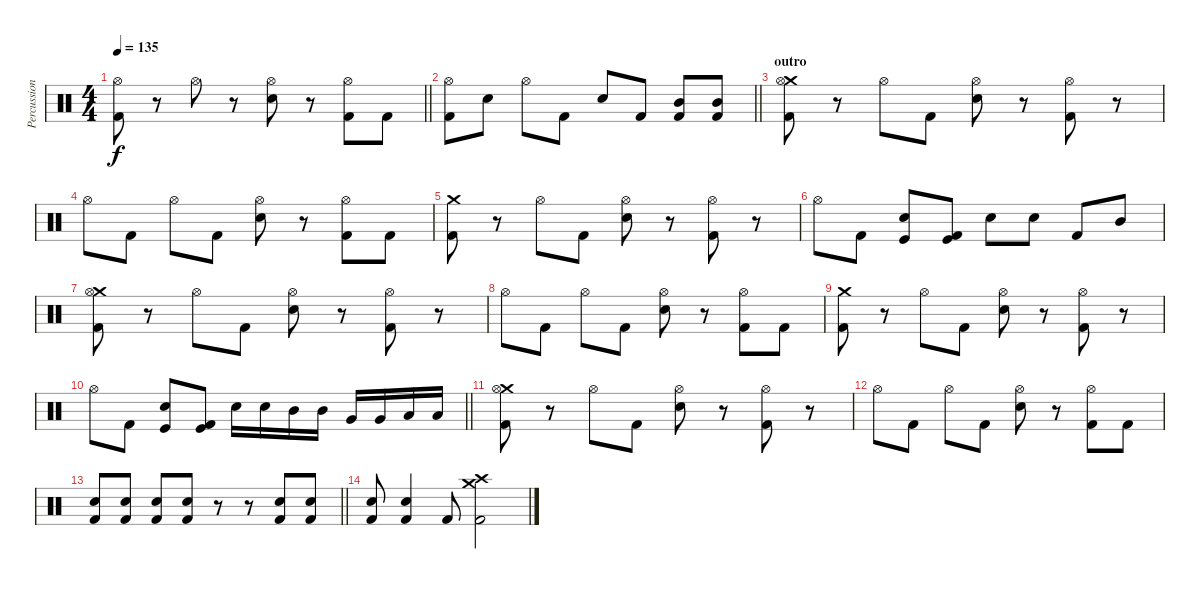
\track ("Percussion" "Percussion") {instrument percussion}
\staff {score}
\articulation defaults
\ts (4 4)
\tempo 135
\clef neutral
\barLineRight lightlight
\ks c
("Hi-Hat (open)" "Kick (hit) 2").8{dy f} r.8 "Hi-Hat (open)".8 r.8 ("Hi-Hat (open)" "Electric Snare (hit)").8 r.8 ("Hi-Hat (open)" "Kick (hit) 2").8 "Kick (hit) 2".8 |
\barLineRight lightlight
("Hi-Hat (open)" "Kick (hit) 2").8 "Electric Snare (hit)".8 "Hi-Hat (open)".8 "Kick (hit) 2".8 "Electric Snare (hit)".8 "Kick (hit) 2".8 ("Mid Tom (hit)" "Kick (hit) 2").8 ("Mid Tom (hit)" "Kick (hit) 2").8 |
\section ("" "outro")
("Crash medium (hit)" "Hi-Hat (open)" "Kick (hit) 2").8 r.8 "Hi-Hat (open)".8 "Kick (hit) 2".8 ("Hi-Hat (open)" "Electric Snare (hit)").8 r.8 ("Hi-Hat (open)" "Kick (hit) 2").8 r.8 |
"Hi-Hat (open)".8 "Kick (hit) 2".8 "Hi-Hat (open)".8 "Kick (hit) 2".8 ("Hi-Hat (open)" "Electric Snare (hit)").8 r.8 ("Hi-Hat (open)" "Kick (hit) 2").8 "Kick (hit) 2".8 |
("Crash medium (hit)" "Kick (hit) 2").8 r.8 "Hi-Hat (open)".8 "Kick (hit) 2".8 ("Hi-Hat (open)" "Electric Snare (hit)").8 r.8 ("Hi-Hat (open)" "Kick (hit) 2").8 r.8 |
"Hi-Hat (open)".8 "Kick (hit) 2".8 ("Kick (hit)" "Electric Snare (hit)").8 ("Kick (hit)" "Kick (hit) 2").8 "Electric Snare (hit)".8 "Electric Snare (hit)".8 "Kick (hit) 2".8 "Mid Tom (hit)".8 |
("Crash medium (hit)" "Hi-Hat (open)" "Kick (hit) 2").8 r.8 "Hi-Hat (open)".8 "Kick (hit) 2".8 ("Hi-Hat (open)" "Electric Snare (hit)").8 r.8 ("Hi-Hat (open)" "Kick (hit) 2").8 r.8 |
"Hi-Hat (open)".8 "Kick (hit) 2".8 "Hi-Hat (open)".8 "Kick (hit) 2".8 ("Hi-Hat (open)" "Electric Snare (hit)").8 r.8 ("Hi-Hat (open)" "Kick (hit) 2").8 "Kick (hit) 2".8 |
("Crash medium (hit)" "Kick (hit) 2").8 r.8 "Hi-Hat (open)".8 "Kick (hit) 2".8 ("Hi-Hat (open)" "Electric Snare (hit)").8 r.8 ("Hi-Hat (open)" "Kick (hit) 2").8 r.8 |
\barLineRight lightlight "Hi-Hat (open)".8 "Kick (hit) 2".8
("Kick (hit)" "Electric Snare (hit)").8 ("Kick (hit)" "Kick (hit) 2").8 "Electric Snare (hit)".16 "Electric Snare (hit)".16 "Mid Tom (hit)".16 "Mid Tom (hit)".16 "Very Low Tom (hit)".16 "Very Low Tom (hit)".16 "Low Floor Tom (hit)".16 "Low Floor Tom (hit)".16 |
\section ("" "")
("Crash medium (hit)" "Hi-Hat (open)" "Kick (hit) 2").8 r.8 "Hi-Hat (open)".8 "Kick (hit) 2".8 ("Hi-Hat (open)" "Electric Snare (hit)").8 r.8 ("Hi-Hat (open)" "Kick (hit) 2").8 r.8 |
"Hi-Hat (open)".8 "Kick (hit) 2".8 "Hi-Hat (open)".8 "Kick (hit) 2".8 ("Hi-Hat (open)" "Electric Snare (hit)").8 r.8 ("Hi-Hat (open)" "Kick (hit) 2").8 "Kick (hit) 2".8 |
\barLineRight lightlight
("Electric Snare (hit)" "Kick (hit) 2").8 ("Electric Snare (hit)" "Kick (hit) 2").8 ("Electric Snare (hit)" "Kick (hit) 2").8 ("Electric Snare (hit)" "Kick (hit) 2").8 r.8 r.8 ("Electric Snare (hit)" "Kick (hit) 2").8 ("Electric Snare (hit)" "Kick (hit) 2").8 |
("Electric Snare (hit)" "Kick (hit) 2").8 ("Electric Snare (hit)" "Kick (hit) 2").4 "Kick (hit) 2".8 ("Crash medium (hit)" "Crash high (hit)" "Kick (hit) 2").2
